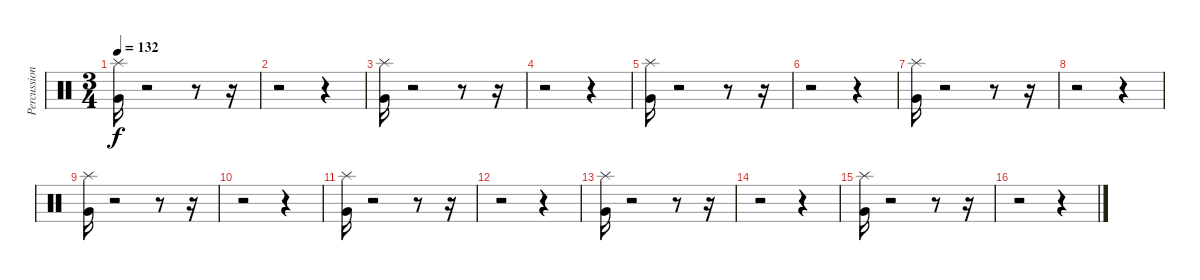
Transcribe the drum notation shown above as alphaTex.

\track ("Percussion" "Percussion") {instrument percussion}
\staff {score}
\articulation defaults
\ts (3 4)
\tempo 132
\clef neutral
\ks c
("Very Low Tom (hit)" "Splash (hit)").16{dy f} r.2 r.8 r.16 |
r.2 r.4 |
("Very Low Tom (hit)" "Splash (hit)").16 r.2 r.8 r.16 |
r.2 r.4 |
("Very Low Tom (hit)" "Splash (hit)").16 r.2 r.8 r.16 |
r.2 r.4 |
("Very Low Tom (hit)" "Splash (hit)").16 r.2 r.8 r.16 |
r.2 r.4 |
("Very Low Tom (hit)" "Splash (hit)").16 r.2 r.8 r.16 |
r.2 r.4 |
("Very Low Tom (hit)" "Splash (hit)").16 r.2 r.8 r.16 |
r.2 r.4 |
("Very Low Tom (hit)" "Splash (hit)").16 r.2 r.8 r.16 |
r.2 r.4 |
("Very Low Tom (hit)" "Splash (hit)").16 r.2 r.8 r.16 |
r.2 r.4
